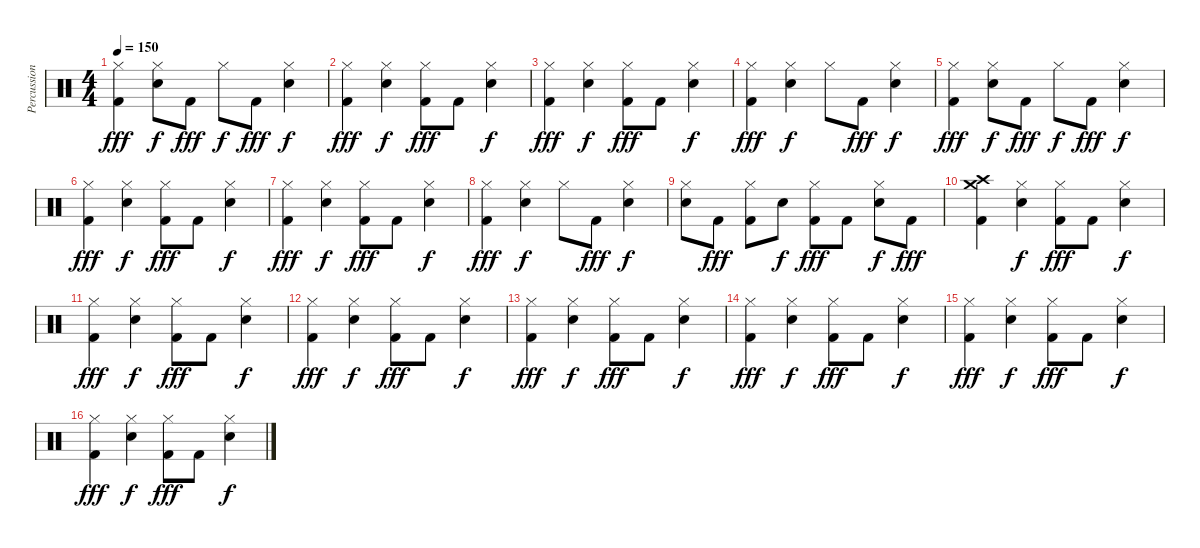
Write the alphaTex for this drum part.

\track ("Percussion" "Percussion") {instrument percussion}
\staff {score}
\articulation defaults
\ts (4 4)
\tempo 150
\clef neutral
\ks c
("Hi-Hat (closed)" "Kick (hit) 2").4{dy fff} ("Hi-Hat (closed)" "Electric Snare (hit)").8{dy f} "Kick (hit) 2".8{dy fff} "Hi-Hat (closed)".8{dy f} "Kick (hit) 2".8{dy fff} ("Hi-Hat (closed)" "Electric Snare (hit)").4{dy f} |
("Hi-Hat (closed)" "Kick (hit) 2").4{dy fff} ("Hi-Hat (closed)" "Electric Snare (hit)").4{dy f} ("Hi-Hat (closed)" "Kick (hit) 2").8{dy fff} "Kick (hit) 2".8 ("Hi-Hat (closed)" "Electric Snare (hit)").4{dy f} |
("Hi-Hat (closed)" "Kick (hit) 2").4{dy fff} ("Hi-Hat (closed)" "Electric Snare (hit)").4{dy f} ("Hi-Hat (closed)" "Kick (hit) 2").8{dy fff} "Kick (hit) 2".8 ("Hi-Hat (closed)" "Electric Snare (hit)").4{dy f} |
("Hi-Hat (closed)" "Kick (hit) 2").4{dy fff} ("Hi-Hat (closed)" "Electric Snare (hit)").4{dy f} "Hi-Hat (closed)".8 "Kick (hit) 2".8{dy fff} ("Hi-Hat (closed)" "Electric Snare (hit)").4{dy f} |
("Hi-Hat (closed)" "Kick (hit) 2").4{dy fff} ("Hi-Hat (closed)" "Electric Snare (hit)").8{dy f} "Kick (hit) 2".8{dy fff} "Hi-Hat (closed)".8{dy f} "Kick (hit) 2".8{dy fff} ("Hi-Hat (closed)" "Electric Snare (hit)").4{dy f} |
("Hi-Hat (closed)" "Kick (hit) 2").4{dy fff} ("Hi-Hat (closed)" "Electric Snare (hit)").4{dy f} ("Hi-Hat (closed)" "Kick (hit) 2").8{dy fff} "Kick (hit) 2".8 ("Hi-Hat (closed)" "Electric Snare (hit)").4{dy f} |
("Hi-Hat (closed)" "Kick (hit) 2").4{dy fff} ("Hi-Hat (closed)" "Electric Snare (hit)").4{dy f} ("Hi-Hat (closed)" "Kick (hit) 2").8{dy fff} "Kick (hit) 2".8 ("Hi-Hat (closed)" "Electric Snare (hit)").4{dy f} |
("Hi-Hat (closed)" "Kick (hit) 2").4{dy fff} ("Hi-Hat (closed)" "Electric Snare (hit)").4{dy f} "Hi-Hat (closed)".8 "Kick (hit) 2".8{dy fff} ("Hi-Hat (closed)" "Electric Snare (hit)").4{dy f} |
("Hi-Hat (closed)" "Electric Snare (hit)").8 "Kick (hit) 2".8{dy fff} ("Hi-Hat (closed)" "Kick (hit) 2").8 "Electric Snare (hit)".8{dy f} ("Hi-Hat (closed)" "Kick (hit) 2").8{dy fff} "Kick (hit) 2".8 ("Hi-Hat (closed)" "Electric Snare (hit)").8{dy f} "Kick (hit) 2".8{dy fff} |
("Crash high (hit)" "Crash medium (hit)" "Kick (hit) 2").4 ("Hi-Hat (closed)" "Electric Snare (hit)").4{dy f} ("Hi-Hat (closed)" "Kick (hit) 2").8{dy fff} "Kick (hit) 2".8 ("Hi-Hat (closed)" "Electric Snare (hit)").4{dy f} |
("Hi-Hat (closed)" "Kick (hit) 2").4{dy fff} ("Hi-Hat (closed)" "Electric Snare (hit)").4{dy f} ("Hi-Hat (closed)" "Kick (hit) 2").8{dy fff} "Kick (hit) 2".8 ("Hi-Hat (closed)" "Electric Snare (hit)").4{dy f} |
("Hi-Hat (closed)" "Kick (hit) 2").4{dy fff} ("Hi-Hat (closed)" "Electric Snare (hit)").4{dy f} ("Hi-Hat (closed)" "Kick (hit) 2").8{dy fff} "Kick (hit) 2".8 ("Hi-Hat (closed)" "Electric Snare (hit)").4{dy f} |
("Hi-Hat (closed)" "Kick (hit) 2").4{dy fff} ("Hi-Hat (closed)" "Electric Snare (hit)").4{dy f} ("Hi-Hat (closed)" "Kick (hit) 2").8{dy fff} "Kick (hit) 2".8 ("Hi-Hat (closed)" "Electric Snare (hit)").4{dy f} |
("Hi-Hat (closed)" "Kick (hit) 2").4{dy fff} ("Hi-Hat (closed)" "Electric Snare (hit)").4{dy f} ("Hi-Hat (closed)" "Kick (hit) 2").8{dy fff} "Kick (hit) 2".8 ("Hi-Hat (closed)" "Electric Snare (hit)").4{dy f} |
("Hi-Hat (closed)" "Kick (hit) 2").4{dy fff} ("Hi-Hat (closed)" "Electric Snare (hit)").4{dy f} ("Hi-Hat (closed)" "Kick (hit) 2").8{dy fff} "Kick (hit) 2".8 ("Hi-Hat (closed)" "Electric Snare (hit)").4{dy f} |
("Hi-Hat (closed)" "Kick (hit) 2").4{dy fff} ("Hi-Hat (closed)" "Electric Snare (hit)").4{dy f} ("Hi-Hat (closed)" "Kick (hit) 2").8{dy fff} "Kick (hit) 2".8 ("Hi-Hat (closed)" "Electric Snare (hit)").4{dy f}
